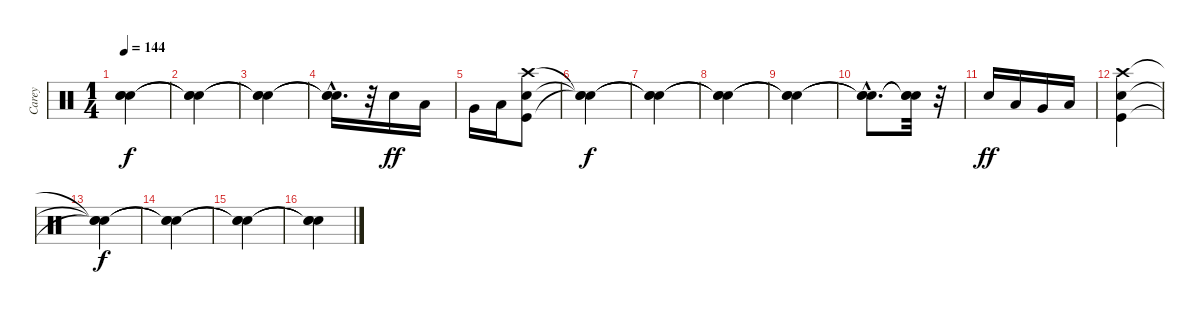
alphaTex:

\track ("Carey" "Carey") {instrument percussion}
\staff {score}
\articulation defaults
\ts (1 4)
\tempo 144
\clef neutral
\ks c
("Snare (hit)"{t} "Snare (hit)"{t} "Snare (hit)"{t}).4{dy f} |
("Snare (hit)"{t} "Snare (hit)"{t} "Snare (hit)"{t}).4 |
("Snare (hit)"{t} "Snare (hit)"{t} "Snare (hit)"{t}).4 |
("Snare (hit)"{hac t} "Snare (hit)"{hac t} "Snare (hit)"{hac t}).16{d} r.32 "Snare (hit) 2".16{dy ff} "Low Tom (hit)".16 |
"Very Low Tom (hit)".16 "Low Floor Tom (hit)".16 ("Kick (hit)" "Snare (hit) 2" "Crash high (hit)").8 |
("Snare (hit)"{t} "Snare (hit)"{t} "Snare (hit)"{t}).4{dy f} |
("Snare (hit)"{t} "Snare (hit)"{t} "Snare (hit)"{t}).4 |
("Snare (hit)"{t} "Snare (hit)"{t} "Snare (hit)"{t}).4 |
("Snare (hit)"{t} "Snare (hit)"{t} "Snare (hit)"{t}).4 |
("Snare (hit)"{hac t} "Snare (hit)"{hac t} "Snare (hit)"{hac t}).8{d} ("Snare (hit)"{t} "Snare (hit)"{t} "Snare (hit)"{t}).32 r.32 |
"Snare (hit) 2".16{dy ff} "Low Tom (hit)".16 "Very Low Tom (hit)".16 "Low Floor Tom (hit)".16 |
("Kick (hit)" "Snare (hit) 2" "Crash high (hit)").4 |
("Snare (hit)"{t} "Snare (hit)"{t} "Snare (hit)"{t}).4{dy f} |
("Snare (hit)"{t} "Snare (hit)"{t} "Snare (hit)"{t}).4 |
("Snare (hit)"{t} "Snare (hit)"{t} "Snare (hit)"{t}).4 |
("Snare (hit)"{t} "Snare (hit)"{t} "Snare (hit)"{t}).4
